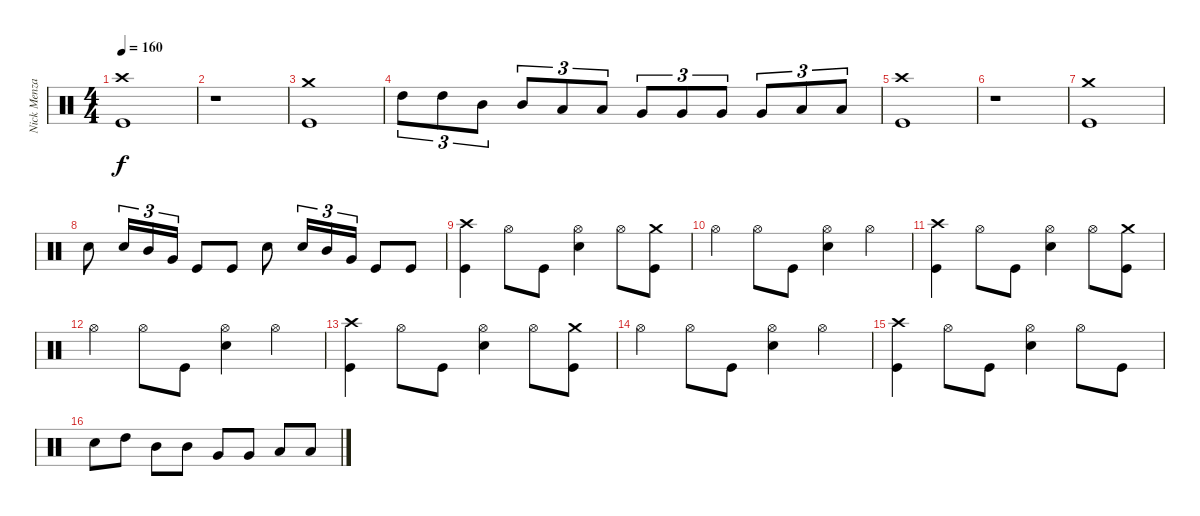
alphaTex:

\track ("Nick Menza" "Nick Menza") {instrument percussion}
\staff {score}
\articulation defaults
\ts (4 4)
\tempo 160
\clef neutral
\ks c
("Crash high (hit)" "Kick (hit)").1{dy f} |
r.1 |
("Crash medium (hit)" "Kick (hit)").1 |
"High Tom (hit)".8{tu (3 2)} "High Tom (hit)".8{tu (3 2)} "Mid Tom (hit)".8{tu (3 2)} "Mid Tom (hit)".8{tu (3 2)} "Low Tom (hit)".8{tu (3 2)} "Low Tom (hit)".8{tu (3 2)} "Very Low Tom (hit)".8{tu (3 2)} "Very Low Tom (hit)".8{tu (3 2)} "Very Low Tom (hit)".8{tu (3 2)} "Very Low Tom (hit)".8{tu (3 2)} "Low Floor Tom (hit)".8{tu (3 2)} "Low Floor Tom (hit)".8{tu (3 2)} |
("Crash high (hit)" "Kick (hit)").1 |
r.1 |
("Crash medium (hit)" "Kick (hit)").1 |
"Snare (hit) 2".8 "Snare (hit) 2".16{tu (3 2)} "Mid Tom (hit)".16{tu (3 2)} "Very Low Tom (hit)".16{tu (3 2)} "Kick (hit)".8 "Kick (hit)".8 "Snare (hit) 2".8 "Snare (hit) 2".16{tu (3 2)} "Mid Tom (hit)".16{tu (3 2)} "Very Low Tom (hit)".16{tu (3 2)} "Kick (hit)".8 "Kick (hit)".8 |
("Crash high (hit)" "Kick (hit)").4 "Hi-Hat (open)".8 "Kick (hit)".8 ("Hi-Hat (open)" "Snare (hit) 2").4 "Hi-Hat (open)".8 ("Crash medium (hit)" "Kick (hit)").8 |
"Hi-Hat (open)".4 "Hi-Hat (open)".8 "Kick (hit)".8 ("Hi-Hat (open)" "Snare (hit) 2").4 "Hi-Hat (open)".4 |
("Crash high (hit)" "Kick (hit)").4 "Hi-Hat (open)".8 "Kick (hit)".8 ("Hi-Hat (open)" "Snare (hit) 2").4 "Hi-Hat (open)".8 ("Crash medium (hit)" "Kick (hit)").8 |
"Hi-Hat (open)".4 "Hi-Hat (open)".8 "Kick (hit)".8 ("Hi-Hat (open)" "Snare (hit) 2").4 "Hi-Hat (open)".4 |
("Crash high (hit)" "Kick (hit)").4 "Hi-Hat (open)".8 "Kick (hit)".8 ("Hi-Hat (open)" "Snare (hit) 2").4 "Hi-Hat (open)".8 ("Crash medium (hit)" "Kick (hit)").8 |
"Hi-Hat (open)".4 "Hi-Hat (open)".8 "Kick (hit)".8 ("Hi-Hat (open)" "Snare (hit) 2").4 "Hi-Hat (open)".4 |
("Crash high (hit)" "Kick (hit)").4 "Hi-Hat (open)".8 "Kick (hit)".8 ("Hi-Hat (open)" "Snare (hit) 2").4 "Hi-Hat (open)".8 "Kick (hit)".8 |
"Snare (hit) 2".8 "High Tom (hit)".8 "Mid Tom (hit)".8 "Mid Tom (hit)".8 "Very Low Tom (hit)".8 "Very Low Tom (hit)".8 "Low Floor Tom (hit)".8 "Low Floor Tom (hit)".8
